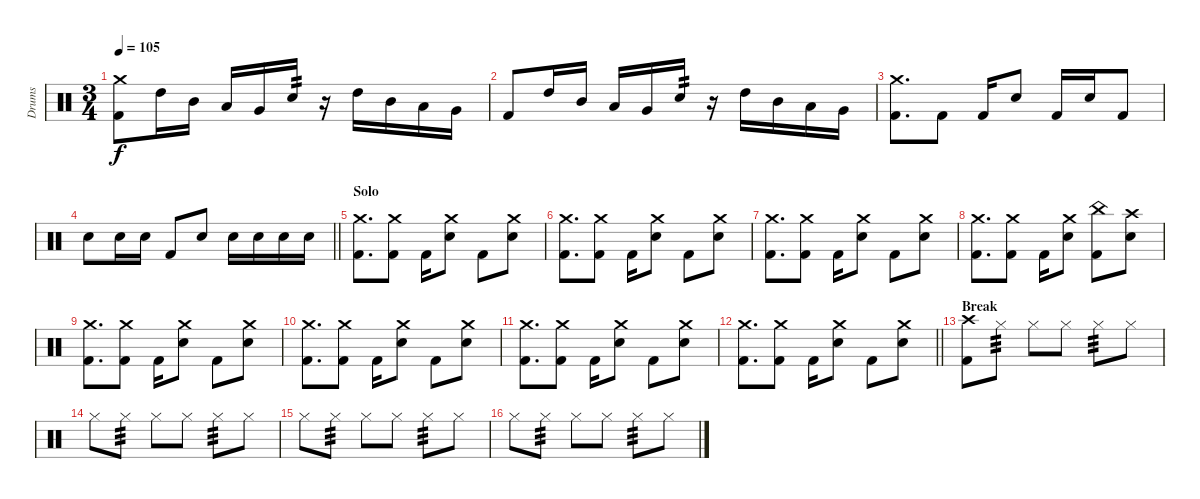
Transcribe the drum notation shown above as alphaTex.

\track ("Drums" "Drums") {instrument percussion}
\staff {score}
\articulation defaults
\ts (3 4)
\tempo 105
\clef neutral
\ks c
("Crash medium (hit)" "Kick (hit) 2").8{dy f} "High Tom (hit)".16 "Mid Tom (hit)".16 "Low Tom (hit)".16 "Very Low Tom (hit)".16 "Electric Snare (hit)".16{tp 2} r.16 "High Tom (hit)".16 "Mid Tom (hit)".16 "Low Tom (hit)".16 "Very Low Tom (hit)".16 |
"Kick (hit) 2".8 "High Tom (hit)".16 "Mid Tom (hit)".16 "Low Tom (hit)".16 "Very Low Tom (hit)".16 "Electric Snare (hit)".16{tp 2} r.16 "High Tom (hit)".16 "Mid Tom (hit)".16 "Low Tom (hit)".16 "Very Low Tom (hit)".16 |
("Crash medium (hit)" "Kick (hit) 2").8{d} "Kick (hit) 2".8 "Kick (hit) 2".16 "Electric Snare (hit)".8 "Kick (hit) 2".16 "Electric Snare (hit)".16 "Kick (hit) 2".8 |
\barLineRight lightlight "Electric Snare (hit)".8 "Electric Snare (hit)".16 "Electric Snare (hit)".16 "Kick (hit) 2".8 "Electric Snare (hit)".8 "Electric Snare (hit)".16 "Electric Snare (hit)".16 "Electric Snare (hit)".16 "Electric Snare (hit)".16
|
\section ("" "Solo")
("Crash medium (hit)" "Kick (hit) 2").8{d} ("Crash medium (hit)" "Kick (hit) 2").8 "Kick (hit) 2".16 ("Crash medium (hit)" "Electric Snare (hit)").8 "Kick (hit) 2".8 ("Crash medium (hit)" "Electric Snare (hit)").8 |
("Crash medium (hit)" "Kick (hit) 2").8{d} ("Crash medium (hit)" "Kick (hit) 2").8 "Kick (hit) 2".16 ("Crash medium (hit)" "Electric Snare (hit)").8 "Kick (hit) 2".8 ("Crash medium (hit)" "Electric Snare (hit)").8 |
("Crash medium (hit)" "Kick (hit) 2").8{d} ("Crash medium (hit)" "Kick (hit) 2").8 "Kick (hit) 2".16 ("Crash medium (hit)" "Electric Snare (hit)").8 "Kick (hit) 2".8 ("Crash medium (hit)" "Electric Snare (hit)").8 |
("Crash medium (hit)" "Kick (hit) 2").8{d} ("Crash medium (hit)" "Kick (hit) 2").8 "Kick (hit) 2".16 ("Crash medium (hit)" "Electric Snare (hit)").8 ("China (hit)" "Kick (hit) 2").8 ("Crash high (hit)" "Electric Snare (hit)").8 |
("Crash medium (hit)" "Kick (hit) 2").8{d} ("Crash medium (hit)" "Kick (hit) 2").8 "Kick (hit) 2".16 ("Crash medium (hit)" "Electric Snare (hit)").8 "Kick (hit) 2".8 ("Crash medium (hit)" "Electric Snare (hit)").8 |
("Crash medium (hit)" "Kick (hit) 2").8{d} ("Crash medium (hit)" "Kick (hit) 2").8 "Kick (hit) 2".16 ("Crash medium (hit)" "Electric Snare (hit)").8 "Kick (hit) 2".8 ("Crash medium (hit)" "Electric Snare (hit)").8 |
("Crash medium (hit)" "Kick (hit) 2").8{d} ("Crash medium (hit)" "Kick (hit) 2").8 "Kick (hit) 2".16 ("Crash medium (hit)" "Electric Snare (hit)").8 "Kick (hit) 2".8 ("Crash medium (hit)" "Electric Snare (hit)").8 |
\barLineRight lightlight
("Crash medium (hit)" "Kick (hit) 2").8{d} ("Crash medium (hit)" "Kick (hit) 2").8 "Kick (hit) 2".16 ("Crash medium (hit)" "Electric Snare (hit)").8 "Kick (hit) 2".8 ("Crash medium (hit)" "Electric Snare (hit)").8 |
\section ("" "Break")
("Crash high (hit)" "Kick (hit) 2").8 "Hi-Hat (closed)".8{tp 3} "Hi-Hat (closed)".8 "Hi-Hat (closed)".8 "Hi-Hat (closed)".8{tp 3} "Hi-Hat (closed)".8 |
"Hi-Hat (closed)".8 "Hi-Hat (closed)".8{tp 3} "Hi-Hat (closed)".8 "Hi-Hat (closed)".8 "Hi-Hat (closed)".8{tp 3} "Hi-Hat (closed)".8 |
"Hi-Hat (closed)".8 "Hi-Hat (closed)".8{tp 3} "Hi-Hat (closed)".8 "Hi-Hat (closed)".8 "Hi-Hat (closed)".8{tp 3} "Hi-Hat (closed)".8 |
"Hi-Hat (closed)".8 "Hi-Hat (closed)".8{tp 3} "Hi-Hat (closed)".8 "Hi-Hat (closed)".8 "Hi-Hat (closed)".8{tp 3} "Hi-Hat (closed)".8
